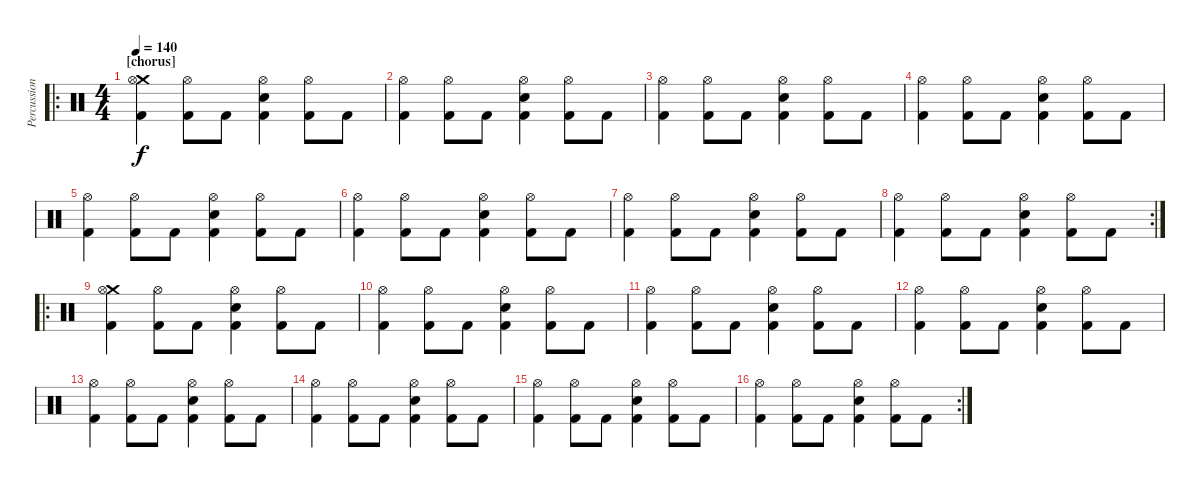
\track ("Percussion" "Percussion") {instrument percussion}
\staff {score}
\articulation defaults
\ro
\ts (4 4)
\section ("" "[chorus]")
\tempo 140
\clef neutral
\ks c
("Crash medium (hit)" "Hi-Hat (open)" "Kick (hit) 2").4{dy f} ("Hi-Hat (open)" "Kick (hit) 2").8 "Kick (hit) 2".8 ("Hi-Hat (open)" "Electric Snare (hit)" "Kick (hit) 2").4 ("Hi-Hat (open)" "Kick (hit) 2").8 "Kick (hit) 2".8 |
("Hi-Hat (open)" "Kick (hit) 2").4 ("Hi-Hat (open)" "Kick (hit) 2").8 "Kick (hit) 2".8 ("Hi-Hat (open)" "Electric Snare (hit)" "Kick (hit) 2").4 ("Hi-Hat (open)" "Kick (hit) 2").8 "Kick (hit) 2".8 |
("Hi-Hat (open)" "Kick (hit) 2").4 ("Hi-Hat (open)" "Kick (hit) 2").8 "Kick (hit) 2".8 ("Hi-Hat (open)" "Electric Snare (hit)" "Kick (hit) 2").4 ("Hi-Hat (open)" "Kick (hit) 2").8 "Kick (hit) 2".8 |
("Hi-Hat (open)" "Kick (hit) 2").4 ("Hi-Hat (open)" "Kick (hit) 2").8 "Kick (hit) 2".8 ("Hi-Hat (open)" "Electric Snare (hit)" "Kick (hit) 2").4 ("Hi-Hat (open)" "Kick (hit) 2").8 "Kick (hit) 2".8 |
("Hi-Hat (open)" "Kick (hit) 2").4 ("Hi-Hat (open)" "Kick (hit) 2").8 "Kick (hit) 2".8 ("Hi-Hat (open)" "Electric Snare (hit)" "Kick (hit) 2").4 ("Hi-Hat (open)" "Kick (hit) 2").8 "Kick (hit) 2".8 |
("Hi-Hat (open)" "Kick (hit) 2").4 ("Hi-Hat (open)" "Kick (hit) 2").8 "Kick (hit) 2".8 ("Hi-Hat (open)" "Electric Snare (hit)" "Kick (hit) 2").4 ("Hi-Hat (open)" "Kick (hit) 2").8 "Kick (hit) 2".8 |
("Hi-Hat (open)" "Kick (hit) 2").4 ("Hi-Hat (open)" "Kick (hit) 2").8 "Kick (hit) 2".8 ("Hi-Hat (open)" "Electric Snare (hit)" "Kick (hit) 2").4 ("Hi-Hat (open)" "Kick (hit) 2").8 "Kick (hit) 2".8 |
\rc 2
("Hi-Hat (open)" "Kick (hit) 2").4 ("Hi-Hat (open)" "Kick (hit) 2").8 "Kick (hit) 2".8 ("Hi-Hat (open)" "Electric Snare (hit)" "Kick (hit) 2").4 ("Hi-Hat (open)" "Kick (hit) 2").8 "Kick (hit) 2".8 |
\ro
("Crash medium (hit)" "Hi-Hat (open)" "Kick (hit) 2").4 ("Hi-Hat (open)" "Kick (hit) 2").8 "Kick (hit) 2".8 ("Hi-Hat (open)" "Electric Snare (hit)" "Kick (hit) 2").4 ("Hi-Hat (open)" "Kick (hit) 2").8 "Kick (hit) 2".8 |
("Hi-Hat (open)" "Kick (hit) 2").4 ("Hi-Hat (open)" "Kick (hit) 2").8 "Kick (hit) 2".8 ("Hi-Hat (open)" "Electric Snare (hit)" "Kick (hit) 2").4 ("Hi-Hat (open)" "Kick (hit) 2").8 "Kick (hit) 2".8 |
("Hi-Hat (open)" "Kick (hit) 2").4 ("Hi-Hat (open)" "Kick (hit) 2").8 "Kick (hit) 2".8 ("Hi-Hat (open)" "Electric Snare (hit)" "Kick (hit) 2").4 ("Hi-Hat (open)" "Kick (hit) 2").8 "Kick (hit) 2".8 |
("Hi-Hat (open)" "Kick (hit) 2").4 ("Hi-Hat (open)" "Kick (hit) 2").8 "Kick (hit) 2".8 ("Hi-Hat (open)" "Electric Snare (hit)" "Kick (hit) 2").4 ("Hi-Hat (open)" "Kick (hit) 2").8 "Kick (hit) 2".8 |
("Hi-Hat (open)" "Kick (hit) 2").4 ("Hi-Hat (open)" "Kick (hit) 2").8 "Kick (hit) 2".8 ("Hi-Hat (open)" "Electric Snare (hit)" "Kick (hit) 2").4 ("Hi-Hat (open)" "Kick (hit) 2").8 "Kick (hit) 2".8 |
("Hi-Hat (open)" "Kick (hit) 2").4 ("Hi-Hat (open)" "Kick (hit) 2").8 "Kick (hit) 2".8 ("Hi-Hat (open)" "Electric Snare (hit)" "Kick (hit) 2").4 ("Hi-Hat (open)" "Kick (hit) 2").8 "Kick (hit) 2".8 |
("Hi-Hat (open)" "Kick (hit) 2").4 ("Hi-Hat (open)" "Kick (hit) 2").8 "Kick (hit) 2".8 ("Hi-Hat (open)" "Electric Snare (hit)" "Kick (hit) 2").4 ("Hi-Hat (open)" "Kick (hit) 2").8 "Kick (hit) 2".8 |
\rc 2
("Hi-Hat (open)" "Kick (hit) 2").4 ("Hi-Hat (open)" "Kick (hit) 2").8 "Kick (hit) 2".8 ("Hi-Hat (open)" "Electric Snare (hit)" "Kick (hit) 2").4 ("Hi-Hat (open)" "Kick (hit) 2").8 "Kick (hit) 2".8
